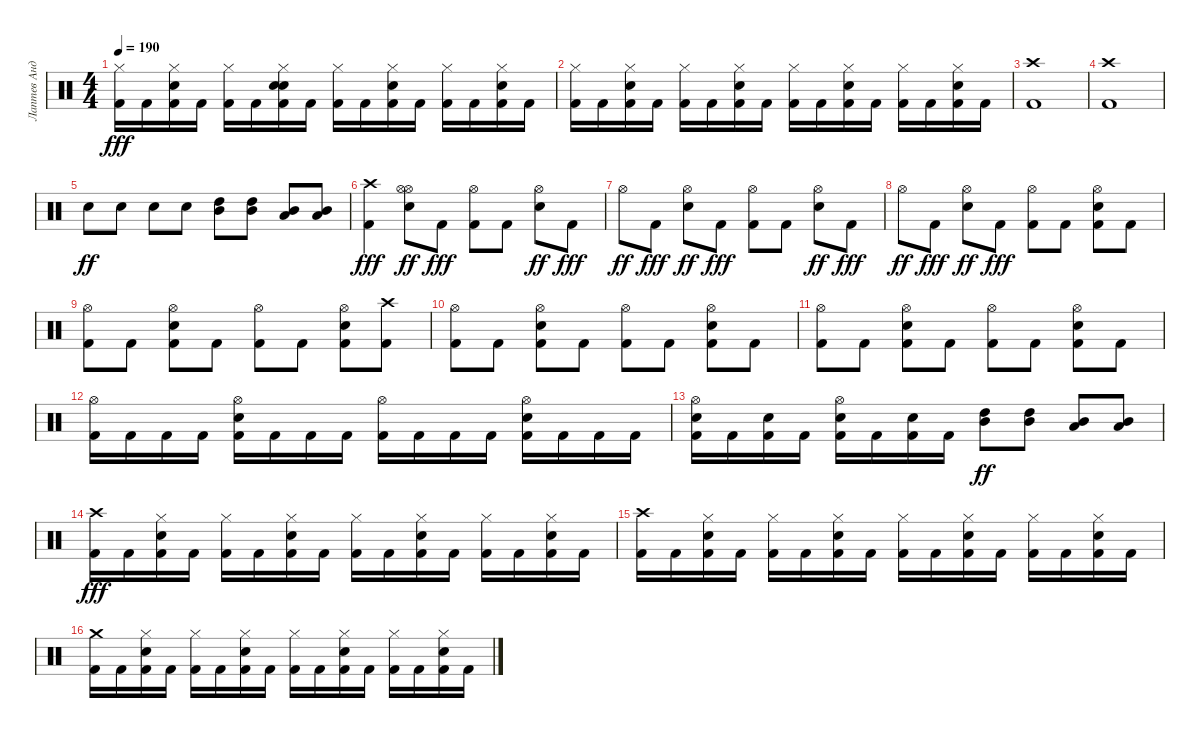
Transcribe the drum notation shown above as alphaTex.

\track ("Лаптев Андрей" "Лаптев Анд") {instrument percussion}
\staff {score}
\articulation defaults
\ts (4 4)
\tempo 190
\clef neutral
\ks c
("Hi-Hat (closed)" "Kick (hit) 2").16{dy fff} "Kick (hit) 2".16 ("Electric Snare (hit)" "Hi-Hat (closed)" "Kick (hit) 2").16 "Kick (hit) 2".16 ("Hi-Hat (closed)" "Kick (hit) 2").16 "Kick (hit) 2".16 ("Electric Snare (hit)" "Electric Snare (hit)" "Hi-Hat (closed)" "Kick (hit) 2").16 "Kick (hit) 2".16 ("Hi-Hat (closed)" "Kick (hit) 2").16 "Kick (hit) 2".16 ("Electric Snare (hit)" "Hi-Hat (closed)" "Kick (hit) 2").16 "Kick (hit) 2".16 ("Hi-Hat (closed)" "Kick (hit) 2").16 "Kick (hit) 2".16 ("Electric Snare (hit)" "Hi-Hat (closed)" "Kick (hit) 2").16 "Kick (hit) 2".16 |
("Hi-Hat (closed)" "Kick (hit) 2").16 "Kick (hit) 2".16 ("Electric Snare (hit)" "Hi-Hat (closed)" "Kick (hit) 2").16 "Kick (hit) 2".16 ("Hi-Hat (closed)" "Kick (hit) 2").16 "Kick (hit) 2".16 ("Electric Snare (hit)" "Hi-Hat (closed)" "Kick (hit) 2").16 "Kick (hit) 2".16 ("Hi-Hat (closed)" "Kick (hit) 2").16 "Kick (hit) 2".16 ("Hi-Hat (closed)" "Electric Snare (hit)" "Kick (hit) 2").16 "Kick (hit) 2".16 ("Hi-Hat (closed)" "Kick (hit) 2").16 "Kick (hit) 2".16 ("Hi-Hat (closed)" "Electric Snare (hit)" "Kick (hit) 2").16 "Kick (hit) 2".16 |
("Crash high (hit)" "Kick (hit) 2").1 |
("Crash high (hit)" "Kick (hit) 2").1 |
"Electric Snare (hit)".8{dy ff} "Electric Snare (hit)".8 "Electric Snare (hit)".8 "Electric Snare (hit)".8 ("Mid Tom (hit)" "High Tom (hit)").8 ("Mid Tom (hit)" "High Tom (hit)").8 ("Mid Tom (hit)" "Low Tom (hit)").8 ("Low Tom (hit)" "Mid Tom (hit)").8 |
("Crash high (hit)" "Kick (hit) 2").4{dy fff} ("Hi-Hat (open)" "Hi-Hat (open)" "Electric Snare (hit)").8{dy ff} "Kick (hit) 2".8{dy fff} ("Hi-Hat (open)" "Kick (hit) 2").8 "Kick (hit) 2".8 ("Hi-Hat (open)" "Electric Snare (hit)").8{dy ff} "Kick (hit) 2".8{dy fff} |
"Hi-Hat (open)".8{dy ff} "Kick (hit) 2".8{dy fff} ("Electric Snare (hit)" "Hi-Hat (open)").8{dy ff} "Kick (hit) 2".8{dy fff} ("Hi-Hat (open)" "Kick (hit) 2").8 "Kick (hit) 2".8 ("Electric Snare (hit)" "Hi-Hat (open)").8{dy ff} "Kick (hit) 2".8{dy fff} |
"Hi-Hat (open)".8{dy ff} "Kick (hit) 2".8{dy fff} ("Electric Snare (hit)" "Hi-Hat (open)").8{dy ff} "Kick (hit) 2".8{dy fff} ("Hi-Hat (open)" "Kick (hit) 2").8 "Kick (hit) 2".8 ("Electric Snare (hit)" "Hi-Hat (open)" "Kick (hit) 2").8 "Kick (hit) 2".8 |
("Hi-Hat (open)" "Kick (hit) 2").8 "Kick (hit) 2".8 ("Electric Snare (hit)" "Hi-Hat (open)" "Kick (hit) 2").8 "Kick (hit) 2".8 ("Hi-Hat (open)" "Kick (hit) 2").8 "Kick (hit) 2".8 ("Hi-Hat (open)" "Electric Snare (hit)" "Kick (hit) 2").8 ("Crash high (hit)" "Kick (hit) 2").8 |
("Hi-Hat (open)" "Kick (hit) 2").8 "Kick (hit) 2".8 ("Electric Snare (hit)" "Hi-Hat (open)" "Kick (hit) 2").8 "Kick (hit) 2".8 ("Hi-Hat (open)" "Kick (hit) 2").8 "Kick (hit) 2".8 ("Hi-Hat (open)" "Electric Snare (hit)" "Kick (hit) 2").8 "Kick (hit) 2".8 |
("Hi-Hat (open)" "Kick (hit) 2").8 "Kick (hit) 2".8 ("Hi-Hat (open)" "Electric Snare (hit)" "Kick (hit) 2").8 "Kick (hit) 2".8 ("Hi-Hat (open)" "Kick (hit) 2").8 "Kick (hit) 2".8 ("Electric Snare (hit)" "Hi-Hat (open)" "Kick (hit) 2").8 "Kick (hit) 2".8 |
("Hi-Hat (open)" "Kick (hit) 2").16 "Kick (hit) 2".16 "Kick (hit) 2".16 "Kick (hit) 2".16 ("Electric Snare (hit)" "Hi-Hat (open)" "Kick (hit) 2").16 "Kick (hit) 2".16 "Kick (hit) 2".16 "Kick (hit) 2".16 ("Hi-Hat (open)" "Kick (hit) 2").16 "Kick (hit) 2".16 "Kick (hit) 2".16 "Kick (hit) 2".16 ("Hi-Hat (open)" "Electric Snare (hit)" "Kick (hit) 2").16 "Kick (hit) 2".16 "Kick (hit) 2".16 "Kick (hit) 2".16 |
("Hi-Hat (open)" "Electric Snare (hit)" "Kick (hit) 2").16 "Kick (hit) 2".16 ("Electric Snare (hit)" "Kick (hit) 2").16 "Kick (hit) 2".16 ("Electric Snare (hit)" "Hi-Hat (open)" "Kick (hit) 2").16 "Kick (hit) 2".16 ("Electric Snare (hit)" "Kick (hit) 2").16 "Kick (hit) 2".16 ("Mid Tom (hit)" "High Tom (hit)").8{dy ff} ("High Tom (hit)" "Mid Tom (hit)").8 ("Low Tom (hit)" "Mid Tom (hit)").8 ("Low Tom (hit)" "Mid Tom (hit)").8 |
("Crash high (hit)" "Kick (hit) 2").16{dy fff} "Kick (hit) 2".16 ("Electric Snare (hit)" "Hi-Hat (closed)" "Kick (hit) 2").16 "Kick (hit) 2".16 ("Hi-Hat (closed)" "Kick (hit) 2").16 "Kick (hit) 2".16 ("Electric Snare (hit)" "Hi-Hat (closed)" "Kick (hit) 2").16 "Kick (hit) 2".16 ("Hi-Hat (closed)" "Kick (hit) 2").16 "Kick (hit) 2".16 ("Hi-Hat (closed)" "Electric Snare (hit)" "Kick (hit) 2").16 "Kick (hit) 2".16 ("Hi-Hat (closed)" "Kick (hit) 2").16 "Kick (hit) 2".16 ("Electric Snare (hit)" "Hi-Hat (closed)" "Kick (hit) 2").16 "Kick (hit) 2".16 |
("Crash high (hit)" "Kick (hit) 2").16 "Kick (hit) 2".16 ("Hi-Hat (closed)" "Electric Snare (hit)" "Kick (hit) 2").16 "Kick (hit) 2".16 ("Hi-Hat (closed)" "Kick (hit) 2").16 "Kick (hit) 2".16 ("Hi-Hat (closed)" "Electric Snare (hit)" "Kick (hit) 2").16 "Kick (hit) 2".16 ("Hi-Hat (closed)" "Kick (hit) 2").16 "Kick (hit) 2".16 ("Hi-Hat (closed)" "Electric Snare (hit)" "Kick (hit) 2").16 "Kick (hit) 2".16 ("Hi-Hat (closed)" "Kick (hit) 2").16 "Kick (hit) 2".16 ("Hi-Hat (closed)" "Electric Snare (hit)" "Kick (hit) 2").16 "Kick (hit) 2".16 |
("Crash medium (hit)" "Kick (hit) 2").16 "Kick (hit) 2".16 ("Hi-Hat (closed)" "Electric Snare (hit)" "Kick (hit) 2").16 "Kick (hit) 2".16 ("Hi-Hat (closed)" "Kick (hit) 2").16 "Kick (hit) 2".16 ("Hi-Hat (closed)" "Electric Snare (hit)" "Kick (hit) 2").16 "Kick (hit) 2".16 ("Hi-Hat (closed)" "Kick (hit) 2").16 "Kick (hit) 2".16 ("Hi-Hat (closed)" "Electric Snare (hit)" "Kick (hit) 2").16 "Kick (hit) 2".16 ("Hi-Hat (closed)" "Kick (hit) 2").16 "Kick (hit) 2".16 ("Hi-Hat (closed)" "Electric Snare (hit)" "Kick (hit) 2").16 "Kick (hit) 2".16
